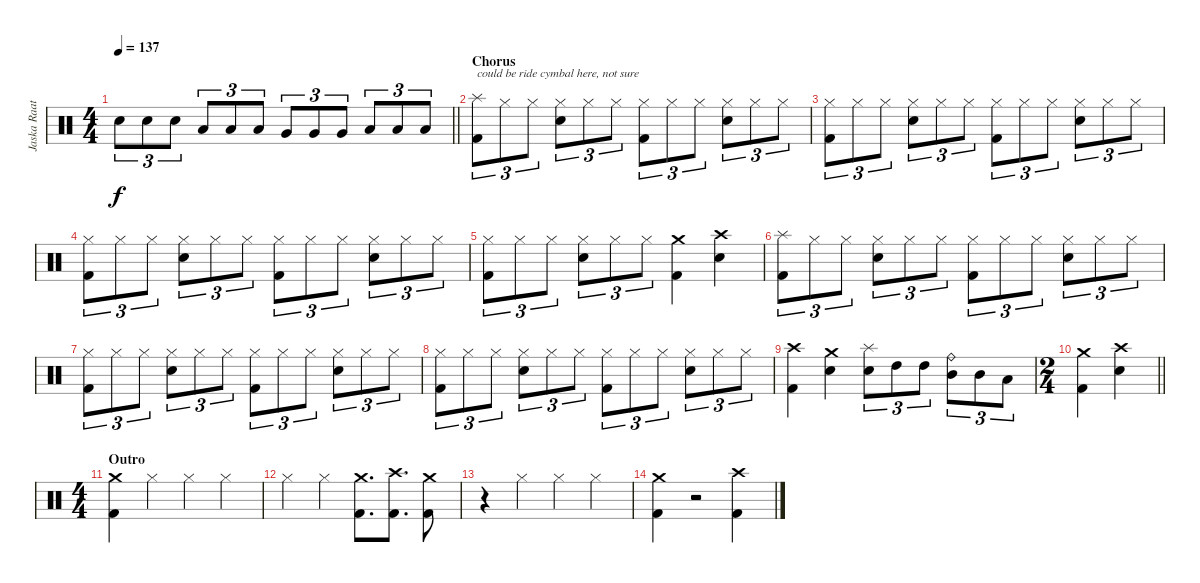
\track ("Jaska Raatikainen" "Jaska Raat") {instrument percussion}
\staff {score}
\articulation defaults
\ts (4 4)
\tempo 137
\clef neutral
\barLineRight lightlight
\ks c "Electric Snare (hit)".8{tu (3 2) dy f} "Electric Snare (hit)".8{tu (3 2)} "Electric Snare (hit)".8{tu (3 2)} "Low Tom (hit)".8{tu (3 2)} "Low Tom (hit)".8{tu (3 2)} "Low Tom (hit)".8{tu (3 2)} "Very Low Tom (hit)".8{tu (3 2)} "Very Low Tom (hit)".8{tu (3 2)} "Very Low Tom (hit)".8{tu (3 2)} "Low Floor Tom (hit)".8{tu (3 2)} "Low Floor Tom (hit)".8{tu (3 2)} "Low Floor Tom (hit)".8{tu (3 2)}
|
\section ("" "Chorus")
("Splash (hit)" "Kick (hit) 2").8{tu (3 2) txt "could be ride cymbal here, not sure"} "Hi-Hat (closed)".8{tu (3 2)} "Hi-Hat (closed)".8{tu (3 2)} ("Hi-Hat (closed)" "Electric Snare (hit)").8{tu (3 2)} "Hi-Hat (closed)".8{tu (3 2)} "Hi-Hat (closed)".8{tu (3 2)} ("Hi-Hat (closed)" "Kick (hit) 2").8{tu (3 2)} "Hi-Hat (closed)".8{tu (3 2)} "Hi-Hat (closed)".8{tu (3 2)} ("Hi-Hat (closed)" "Electric Snare (hit)").8{tu (3 2)} "Hi-Hat (closed)".8{tu (3 2)} "Hi-Hat (closed)".8{tu (3 2)} |
("Hi-Hat (closed)" "Kick (hit) 2").8{tu (3 2)} "Hi-Hat (closed)".8{tu (3 2)} "Hi-Hat (closed)".8{tu (3 2)} ("Hi-Hat (closed)" "Electric Snare (hit)").8{tu (3 2)} "Hi-Hat (closed)".8{tu (3 2)} "Hi-Hat (closed)".8{tu (3 2)} ("Hi-Hat (closed)" "Kick (hit) 2").8{tu (3 2)} "Hi-Hat (closed)".8{tu (3 2)} "Hi-Hat (closed)".8{tu (3 2)} ("Hi-Hat (closed)" "Electric Snare (hit)").8{tu (3 2)} "Hi-Hat (closed)".8{tu (3 2)} "Hi-Hat (closed)".8{tu (3 2)} |
("Hi-Hat (closed)" "Kick (hit) 2").8{tu (3 2)} "Hi-Hat (closed)".8{tu (3 2)} "Hi-Hat (closed)".8{tu (3 2)} ("Hi-Hat (closed)" "Electric Snare (hit)").8{tu (3 2)} "Hi-Hat (closed)".8{tu (3 2)} "Hi-Hat (closed)".8{tu (3 2)} ("Hi-Hat (closed)" "Kick (hit) 2").8{tu (3 2)} "Hi-Hat (closed)".8{tu (3 2)} "Hi-Hat (closed)".8{tu (3 2)} ("Hi-Hat (closed)" "Electric Snare (hit)").8{tu (3 2)} "Hi-Hat (closed)".8{tu (3 2)} "Hi-Hat (closed)".8{tu (3 2)} |
("Hi-Hat (closed)" "Kick (hit) 2").8{tu (3 2)} "Hi-Hat (closed)".8{tu (3 2)} "Hi-Hat (closed)".8{tu (3 2)} ("Hi-Hat (closed)" "Electric Snare (hit)").8{tu (3 2)} "Hi-Hat (closed)".8{tu (3 2)} "Hi-Hat (closed)".8{tu (3 2)} ("Crash medium (hit)" "Kick (hit) 2").4 ("Crash high (hit)" "Electric Snare (hit)").4 |
("Splash (hit)" "Kick (hit) 2").8{tu (3 2)} "Hi-Hat (closed)".8{tu (3 2)} "Hi-Hat (closed)".8{tu (3 2)} ("Hi-Hat (closed)" "Electric Snare (hit)").8{tu (3 2)} "Hi-Hat (closed)".8{tu (3 2)} "Hi-Hat (closed)".8{tu (3 2)} ("Hi-Hat (closed)" "Kick (hit) 2").8{tu (3 2)} "Hi-Hat (closed)".8{tu (3 2)} "Hi-Hat (closed)".8{tu (3 2)} ("Hi-Hat (closed)" "Electric Snare (hit)").8{tu (3 2)} "Hi-Hat (closed)".8{tu (3 2)} "Hi-Hat (closed)".8{tu (3 2)} |
("Hi-Hat (closed)" "Kick (hit) 2").8{tu (3 2)} "Hi-Hat (closed)".8{tu (3 2)} "Hi-Hat (closed)".8{tu (3 2)} ("Hi-Hat (closed)" "Electric Snare (hit)").8{tu (3 2)} "Hi-Hat (closed)".8{tu (3 2)} "Hi-Hat (closed)".8{tu (3 2)} ("Hi-Hat (closed)" "Kick (hit) 2").8{tu (3 2)} "Hi-Hat (closed)".8{tu (3 2)} "Hi-Hat (closed)".8{tu (3 2)} ("Hi-Hat (closed)" "Electric Snare (hit)").8{tu (3 2)} "Hi-Hat (closed)".8{tu (3 2)} "Hi-Hat (closed)".8{tu (3 2)} |
("Hi-Hat (closed)" "Kick (hit) 2").8{tu (3 2)} "Hi-Hat (closed)".8{tu (3 2)} "Hi-Hat (closed)".8{tu (3 2)} ("Hi-Hat (closed)" "Electric Snare (hit)").8{tu (3 2)} "Hi-Hat (closed)".8{tu (3 2)} "Hi-Hat (closed)".8{tu (3 2)} ("Hi-Hat (closed)" "Kick (hit) 2").8{tu (3 2)} "Hi-Hat (closed)".8{tu (3 2)} "Hi-Hat (closed)".8{tu (3 2)} ("Hi-Hat (closed)" "Electric Snare (hit)").8{tu (3 2)} "Hi-Hat (closed)".8{tu (3 2)} "Hi-Hat (closed)".8{tu (3 2)} |
("Crash high (hit)" "Kick (hit) 2").4 ("Crash medium (hit)" "Electric Snare (hit)").4 ("Splash (hit)" "Electric Snare (hit)").8{tu (3 2)} "High Tom (hit)".8{tu (3 2)} "High Tom (hit)".8{tu (3 2)} ("Ride (bell)" "Mid Tom (hit)").8{tu (3 2)} "Mid Tom (hit)".8{tu (3 2)} "Low Tom (hit)".8{tu (3 2)} |
\ts (2 4)
\barLineRight lightlight
("Crash medium (hit)" "Kick (hit) 2").4 ("Crash high (hit)" "Electric Snare (hit)").4 |
\ts (4 4)
\section ("" "Outro")
("Crash medium (hit)" "Kick (hit) 2").4 "Hi-Hat (closed)".4 "Hi-Hat (closed)".4 "Hi-Hat (closed)".4 |
"Hi-Hat (closed)".4 "Hi-Hat (closed)".4 ("Crash medium (hit)" "Kick (hit) 2").8{d} ("Crash high (hit)" "Kick (hit) 2").8{d} ("Crash medium (hit)" "Kick (hit) 2").8 |
r.4 "Hi-Hat (closed)".4 "Hi-Hat (closed)".4 "Hi-Hat (closed)".4 |
("Crash medium (hit)" "Kick (hit) 2").4 r.2 ("Crash high (hit)" "Kick (hit) 2").4
